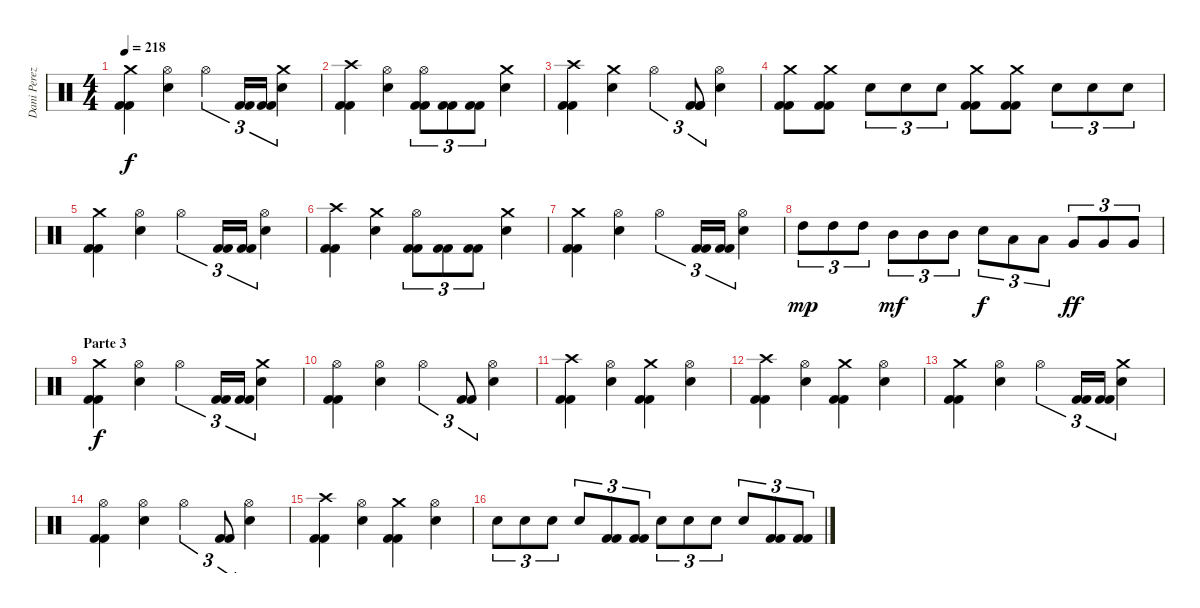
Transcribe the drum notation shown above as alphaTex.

\track ("Dani Perez" "Dani Perez") {instrument percussion}
\staff {score}
\articulation defaults
\ts (4 4)
\tempo 218
\clef neutral
\ks c
("Crash medium (hit)" "Kick (hit) 2" "Kick (hit) 2").4{dy f} ("Hi-Hat (open)" "Snare (hit) 2").4 "Hi-Hat (open)".4{tu (3 2)} ("Kick (hit) 2" "Kick (hit) 2").16{tu (3 2)} ("Kick (hit) 2" "Kick (hit) 2").16{tu (3 2)} ("Crash medium (hit)" "Snare (hit) 2").4 |
("Crash high (hit)" "Kick (hit) 2" "Kick (hit) 2").4 ("Hi-Hat (open)" "Snare (hit) 2").4 ("Hi-Hat (open)" "Kick (hit) 2" "Kick (hit) 2").8{tu (3 2)} ("Kick (hit) 2" "Kick (hit) 2").8{tu (3 2)} ("Kick (hit) 2" "Kick (hit) 2").8{tu (3 2)} ("Crash medium (hit)" "Snare (hit) 2").4 |
("Crash high (hit)" "Kick (hit) 2" "Kick (hit) 2").4 ("Crash medium (hit)" "Snare (hit) 2").4 "Hi-Hat (open)".4{tu (3 2)} ("Kick (hit) 2" "Kick (hit) 2" "Kick (hit) 2").8{tu (3 2)} ("Hi-Hat (open)" "Snare (hit) 2").4 |
("Kick (hit) 2" "Kick (hit) 2" "Crash medium (hit)").8 ("Kick (hit) 2" "Kick (hit) 2" "Crash medium (hit)").8 "Snare (hit) 2".8{tu (3 2)} "Snare (hit) 2".8{tu (3 2)} "Snare (hit) 2".8{tu (3 2)} ("Kick (hit) 2" "Kick (hit) 2" "Crash medium (hit)").8 ("Kick (hit) 2" "Kick (hit) 2" "Crash medium (hit)").8 "Snare (hit) 2".8{tu (3 2)} "Snare (hit) 2".8{tu (3 2)} "Snare (hit) 2".8{tu (3 2)} |
("Crash medium (hit)" "Kick (hit) 2" "Kick (hit) 2").4 ("Hi-Hat (open)" "Snare (hit) 2").4 "Hi-Hat (open)".4{tu (3 2)} ("Kick (hit) 2" "Kick (hit) 2").16{tu (3 2)} ("Kick (hit) 2" "Kick (hit) 2").16{tu (3 2)} ("Hi-Hat (open)" "Snare (hit) 2").4 |
("Crash high (hit)" "Kick (hit) 2" "Kick (hit) 2").4 ("Crash medium (hit)" "Snare (hit) 2").4 ("Hi-Hat (open)" "Kick (hit) 2" "Kick (hit) 2").8{tu (3 2)} ("Kick (hit) 2" "Kick (hit) 2").8{tu (3 2)} ("Kick (hit) 2" "Kick (hit) 2").8{tu (3 2)} ("Crash medium (hit)" "Snare (hit) 2").4 |
("Crash medium (hit)" "Kick (hit) 2" "Kick (hit) 2").4 ("Hi-Hat (open)" "Snare (hit) 2").4 "Hi-Hat (open)".4{tu (3 2)} ("Kick (hit) 2" "Kick (hit) 2").16{tu (3 2)} ("Kick (hit) 2" "Kick (hit) 2").16{tu (3 2)} ("Hi-Hat (open)" "Snare (hit) 2").4 |
"High Tom (hit)".8{tu (3 2) dy mp} "High Tom (hit)".8{tu (3 2)} "High Tom (hit)".8{tu (3 2)} "Mid Tom (hit)".8{tu (3 2) dy mf} "Mid Tom (hit)".8{tu (3 2)} "Mid Tom (hit)".8{tu (3 2)} "Snare (hit) 2".8{tu (3 2) dy f} "Low Tom (hit)".8{tu (3 2)} "Low Tom (hit)".8{tu (3 2)} "Very Low Tom (hit)".8{tu (3 2) dy ff} "Very Low Tom (hit)".8{tu (3 2)} "Very Low Tom (hit)".8{tu (3 2)} |
\section ("" "Parte 3")
("Crash medium (hit)" "Kick (hit) 2" "Kick (hit) 2").4{dy f} ("Hi-Hat (open)" "Snare (hit) 2").4 "Hi-Hat (open)".4{tu (3 2)} ("Kick (hit) 2" "Kick (hit) 2").16{tu (3 2)} ("Kick (hit) 2" "Kick (hit) 2").16{tu (3 2)} ("Crash medium (hit)" "Snare (hit) 2").4 |
("Hi-Hat (open)" "Kick (hit) 2" "Kick (hit) 2").4 ("Hi-Hat (open)" "Snare (hit) 2").4 "Hi-Hat (open)".4{tu (3 2)} ("Kick (hit) 2" "Kick (hit) 2").8{tu (3 2)} ("Hi-Hat (open)" "Snare (hit) 2").4 |
("Crash high (hit)" "Kick (hit) 2" "Kick (hit) 2").4 ("Hi-Hat (open)" "Snare (hit) 2").4 ("Crash medium (hit)" "Kick (hit) 2" "Kick (hit) 2").4 ("Hi-Hat (open)" "Snare (hit) 2").4 |
("Crash high (hit)" "Kick (hit) 2" "Kick (hit) 2").4 ("Hi-Hat (open)" "Snare (hit) 2").4 ("Crash medium (hit)" "Kick (hit) 2" "Kick (hit) 2").4 ("Hi-Hat (open)" "Snare (hit) 2").4 |
("Crash medium (hit)" "Kick (hit) 2" "Kick (hit) 2").4 ("Hi-Hat (open)" "Snare (hit) 2").4 "Hi-Hat (open)".4{tu (3 2)} ("Kick (hit) 2" "Kick (hit) 2").16{tu (3 2)} ("Kick (hit) 2" "Kick (hit) 2").16{tu (3 2)} ("Crash medium (hit)" "Snare (hit) 2").4 |
("Hi-Hat (open)" "Kick (hit) 2" "Kick (hit) 2").4 ("Hi-Hat (open)" "Snare (hit) 2").4 "Hi-Hat (open)".4{tu (3 2)} ("Kick (hit) 2" "Kick (hit) 2").8{tu (3 2)} ("Hi-Hat (open)" "Snare (hit) 2").4 |
("Crash high (hit)" "Kick (hit) 2" "Kick (hit) 2").4 ("Hi-Hat (open)" "Snare (hit) 2").4 ("Crash medium (hit)" "Kick (hit) 2" "Kick (hit) 2").4 ("Hi-Hat (open)" "Snare (hit) 2").4 |
"Snare (hit) 2".8{tu (3 2)} "Snare (hit) 2".8{tu (3 2)} "Snare (hit) 2".8{tu (3 2)} "Snare (hit) 2".8{tu (3 2)} ("Kick (hit) 2" "Kick (hit) 2").8{tu (3 2)} ("Kick (hit) 2" "Kick (hit) 2").8{tu (3 2)} "Snare (hit) 2".8{tu (3 2)} "Snare (hit) 2".8{tu (3 2)} "Snare (hit) 2".8{tu (3 2)} "Snare (hit) 2".8{tu (3 2)} ("Kick (hit) 2" "Kick (hit) 2").8{tu (3 2)} ("Kick (hit) 2" "Kick (hit) 2").8{tu (3 2)}
